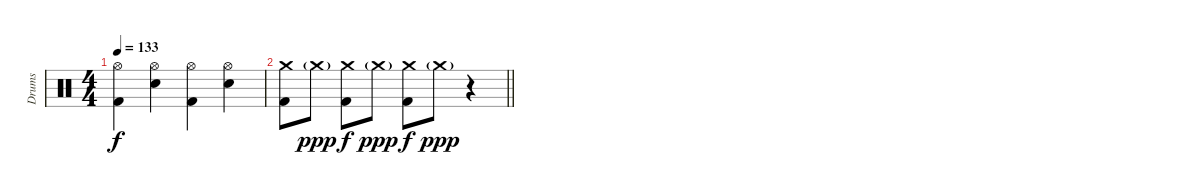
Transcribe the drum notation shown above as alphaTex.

\track ("Drums" "Drums") {instrument percussion}
\staff {score}
\articulation defaults
\ts (4 4)
\tempo 133
\clef neutral
\ks c
("Hi-Hat (open)" "Kick (hit) 2").4{dy f} ("Hi-Hat (open)" "Snare (hit) 2").4 ("Hi-Hat (open)" "Kick (hit) 2").4 ("Hi-Hat (open)" "Snare (hit) 2").4 |
\barLineRight lightlight
("Crash medium (hit)" "Kick (hit) 2").8 "Crash medium (hit)"{g}.8{dy ppp} ("Crash medium (hit)" "Kick (hit) 2").8{dy f} "Crash medium (hit)"{g}.8{dy ppp} ("Crash medium (hit)" "Kick (hit) 2").8{dy f} "Crash medium (hit)"{g}.8{dy ppp} r.4
